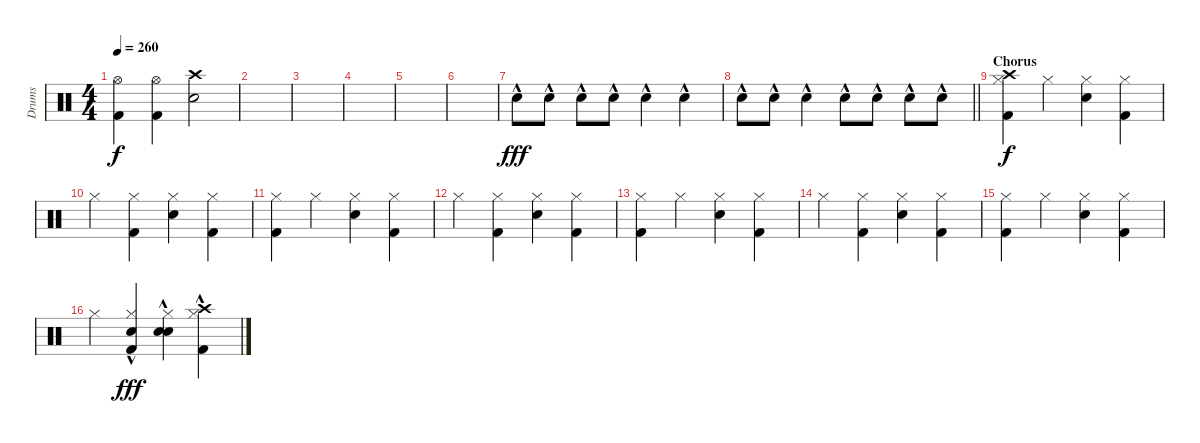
\track ("Drums" "Drums") {instrument percussion bank 2}
\staff {score}
\articulation defaults
\ts (4 4)
\tempo 260
\clef neutral
\ks c
("Hi-Hat (open)" "Kick (hit) 2").4{dy f} ("Hi-Hat (open)" "Kick (hit) 2").4 ("Snare (hit) 2" "Crash high (hit)").2 |
|
|
|
|
|
"Snare (hit) 2"{hac}.8{dy fff} "Snare (hit) 2"{hac}.8 "Snare (hit) 2"{hac}.8 "Snare (hit) 2"{hac}.8 "Snare (hit) 2"{hac}.4 "Snare (hit) 2"{hac}.4 |
\barLineRight lightlight "Snare (hit) 2"{hac}.8 "Snare (hit) 2"{hac}.8 "Snare (hit) 2"{hac}.4 "Snare (hit) 2"{hac}.8 "Snare (hit) 2"{hac}.8 "Snare (hit) 2"{hac}.8 "Snare (hit) 2"{hac}.8
|
\section ("" "Chorus")
("Hi-Hat (closed)" "Kick (hit) 2" "Crash high (hit)").4{dy f} "Hi-Hat (closed)".4 ("Hi-Hat (closed)" "Snare (hit) 2").4 ("Hi-Hat (closed)" "Kick (hit) 2").4 |
"Hi-Hat (closed)".4 ("Hi-Hat (closed)" "Kick (hit) 2").4 ("Hi-Hat (closed)" "Snare (hit) 2").4 ("Hi-Hat (closed)" "Kick (hit) 2").4 |
("Hi-Hat (closed)" "Kick (hit) 2").4 "Hi-Hat (closed)".4 ("Hi-Hat (closed)" "Snare (hit) 2").4 ("Hi-Hat (closed)" "Kick (hit) 2").4 |
"Hi-Hat (closed)".4 ("Hi-Hat (closed)" "Kick (hit) 2").4 ("Hi-Hat (closed)" "Snare (hit) 2").4 ("Hi-Hat (closed)" "Kick (hit) 2").4 |
("Hi-Hat (closed)" "Kick (hit) 2").4 "Hi-Hat (closed)".4 ("Hi-Hat (closed)" "Snare (hit) 2").4 ("Hi-Hat (closed)" "Kick (hit) 2").4 |
"Hi-Hat (closed)".4 ("Hi-Hat (closed)" "Kick (hit) 2").4 ("Hi-Hat (closed)" "Snare (hit) 2").4 ("Hi-Hat (closed)" "Kick (hit) 2").4 |
("Hi-Hat (closed)" "Kick (hit) 2").4 "Hi-Hat (closed)".4 ("Hi-Hat (closed)" "Snare (hit) 2").4 ("Hi-Hat (closed)" "Kick (hit) 2").4 |
"Hi-Hat (closed)".4 ("Hi-Hat (closed)" "Kick (hit) 2" "Hand Clap (hit)"{hac}).4{dy fff} ("Hi-Hat (closed)" "Snare (hit) 2" "Hand Clap (hit)"{hac}).4 ("Hi-Hat (closed)" "Kick (hit) 2" "Crash high (hit)"{hac}).4
